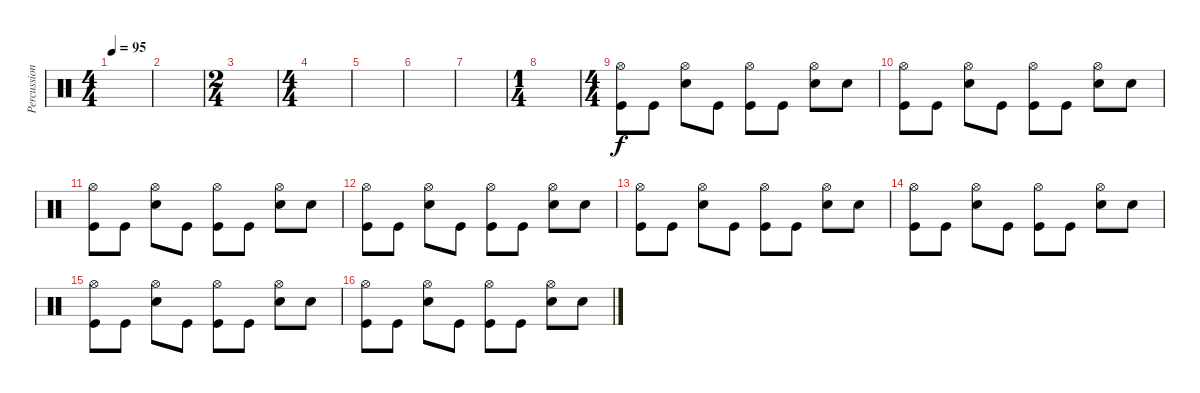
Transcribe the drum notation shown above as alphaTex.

\track ("Percussion" "Percussion") {instrument percussion}
\staff {score}
\articulation defaults
\ts (4 4)
\tempo 95
\clef neutral
\ks c
|
|
\ts (2 4)
|
\ts (4 4)
|
|
|
|
\ts (1 4)
|
\ts (4 4)
("Kick (hit)" "Hi-Hat (open)").8 "Kick (hit)".8 ("Snare (hit) 2" "Hi-Hat (open)").8 "Kick (hit)".8 ("Kick (hit)" "Hi-Hat (open)").8 "Kick (hit)".8 ("Snare (hit) 2" "Hi-Hat (open)").8 "Snare (hit) 2".8 |
("Kick (hit)" "Hi-Hat (open)").8 "Kick (hit)".8 ("Snare (hit) 2" "Hi-Hat (open)").8 "Kick (hit)".8 ("Kick (hit)" "Hi-Hat (open)").8 "Kick (hit)".8 ("Snare (hit) 2" "Hi-Hat (open)").8 "Snare (hit) 2".8 |
("Kick (hit)" "Hi-Hat (open)").8 "Kick (hit)".8 ("Snare (hit) 2" "Hi-Hat (open)").8 "Kick (hit)".8 ("Kick (hit)" "Hi-Hat (open)").8 "Kick (hit)".8 ("Snare (hit) 2" "Hi-Hat (open)").8 "Snare (hit) 2".8 |
("Kick (hit)" "Hi-Hat (open)").8 "Kick (hit)".8 ("Snare (hit) 2" "Hi-Hat (open)").8 "Kick (hit)".8 ("Kick (hit)" "Hi-Hat (open)").8 "Kick (hit)".8 ("Snare (hit) 2" "Hi-Hat (open)").8 "Snare (hit) 2".8 |
("Kick (hit)" "Hi-Hat (open)").8 "Kick (hit)".8 ("Snare (hit) 2" "Hi-Hat (open)").8 "Kick (hit)".8 ("Kick (hit)" "Hi-Hat (open)").8 "Kick (hit)".8 ("Snare (hit) 2" "Hi-Hat (open)").8 "Snare (hit) 2".8 |
("Kick (hit)" "Hi-Hat (open)").8 "Kick (hit)".8 ("Snare (hit) 2" "Hi-Hat (open)").8 "Kick (hit)".8 ("Kick (hit)" "Hi-Hat (open)").8 "Kick (hit)".8 ("Snare (hit) 2" "Hi-Hat (open)").8 "Snare (hit) 2".8 |
("Kick (hit)" "Hi-Hat (open)").8 "Kick (hit)".8 ("Snare (hit) 2" "Hi-Hat (open)").8 "Kick (hit)".8 ("Kick (hit)" "Hi-Hat (open)").8 "Kick (hit)".8 ("Snare (hit) 2" "Hi-Hat (open)").8 "Snare (hit) 2".8 |
("Kick (hit)" "Hi-Hat (open)").8 "Kick (hit)".8 ("Snare (hit) 2" "Hi-Hat (open)").8 "Kick (hit)".8 ("Kick (hit)" "Hi-Hat (open)").8 "Kick (hit)".8 ("Snare (hit) 2" "Hi-Hat (open)").8 "Snare (hit) 2".8
